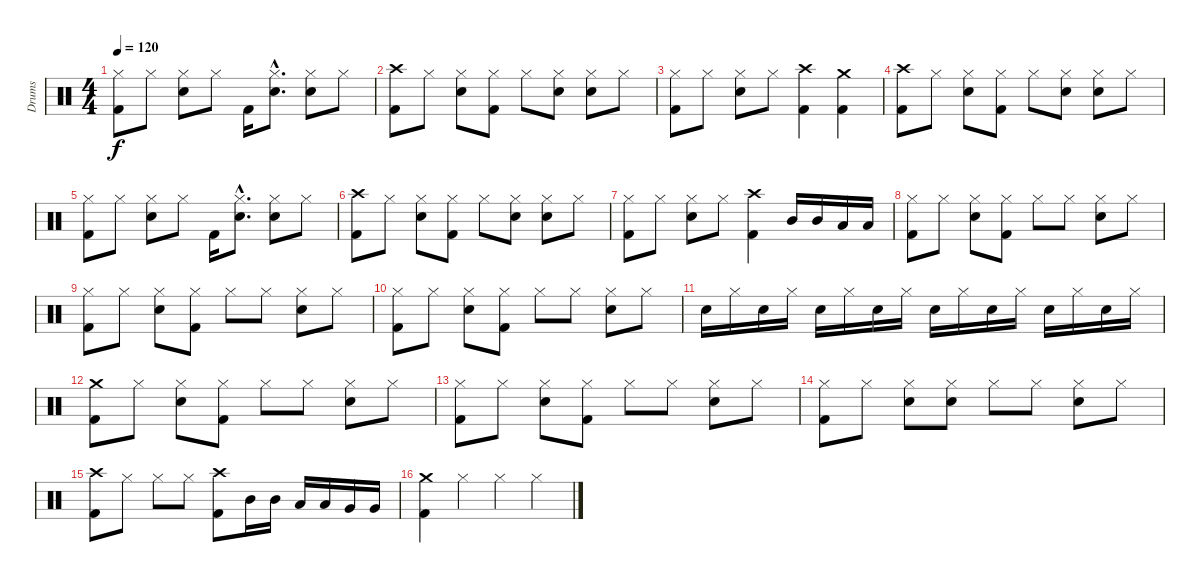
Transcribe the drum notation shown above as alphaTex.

\track ("Drums" "Drums") {instrument percussion}
\staff {score}
\articulation defaults
\ts (4 4)
\tempo 120
\clef neutral
\ks c
("Hi-Hat (closed)" "Kick (hit) 2").8{dy f} "Hi-Hat (closed)".8 ("Electric Snare (hit)" "Hi-Hat (closed)").8 "Hi-Hat (closed)".8 "Kick (hit) 2".16 ("Electric Snare (hit)"{hac} "Hi-Hat (closed)"{hac}).8{d} ("Electric Snare (hit)" "Hi-Hat (closed)").8 "Hi-Hat (closed)".8 |
("Crash high (hit)" "Kick (hit) 2").8 "Hi-Hat (closed)".8 ("Electric Snare (hit)" "Hi-Hat (closed)").8 ("Hi-Hat (closed)" "Kick (hit) 2").8 "Hi-Hat (closed)".8 ("Electric Snare (hit)" "Hi-Hat (closed)").8 ("Electric Snare (hit)" "Hi-Hat (closed)").8 "Hi-Hat (closed)".8 |
("Hi-Hat (closed)" "Kick (hit) 2").8 "Hi-Hat (closed)".8 ("Electric Snare (hit)" "Hi-Hat (closed)").8 "Hi-Hat (closed)".8 ("Crash high (hit)" "Kick (hit) 2").4 ("Crash medium (hit)" "Kick (hit) 2").4 |
("Crash high (hit)" "Kick (hit) 2").8 "Hi-Hat (closed)".8 ("Electric Snare (hit)" "Hi-Hat (closed)").8 ("Hi-Hat (closed)" "Kick (hit) 2").8 "Hi-Hat (closed)".8 ("Electric Snare (hit)" "Hi-Hat (closed)").8 ("Electric Snare (hit)" "Hi-Hat (closed)").8 "Hi-Hat (closed)".8 |
("Hi-Hat (closed)" "Kick (hit) 2").8 "Hi-Hat (closed)".8 ("Electric Snare (hit)" "Hi-Hat (closed)").8 "Hi-Hat (closed)".8 "Kick (hit) 2".16 ("Electric Snare (hit)"{hac} "Hi-Hat (closed)"{hac}).8{d} ("Electric Snare (hit)" "Hi-Hat (closed)").8 "Hi-Hat (closed)".8 |
("Crash high (hit)" "Kick (hit) 2").8 "Hi-Hat (closed)".8 ("Electric Snare (hit)" "Hi-Hat (closed)").8 ("Hi-Hat (closed)" "Kick (hit) 2").8 "Hi-Hat (closed)".8 ("Electric Snare (hit)" "Hi-Hat (closed)").8 ("Electric Snare (hit)" "Hi-Hat (closed)").8 "Hi-Hat (closed)".8 |
("Hi-Hat (closed)" "Kick (hit) 2").8 "Hi-Hat (closed)".8 ("Electric Snare (hit)" "Hi-Hat (closed)").8 "Hi-Hat (closed)".8 ("Crash high (hit)" "Kick (hit) 2").4 "Mid Tom (hit)".16 "Mid Tom (hit)".16 "Low Tom (hit)".16 "Low Tom (hit)".16 |
("Hi-Hat (closed)" "Kick (hit) 2").8 "Hi-Hat (closed)".8 ("Electric Snare (hit)" "Hi-Hat (closed)").8 ("Hi-Hat (closed)" "Kick (hit) 2").8 "Hi-Hat (closed)".8 "Hi-Hat (closed)".8 ("Electric Snare (hit)" "Hi-Hat (closed)").8 "Hi-Hat (closed)".8 |
("Hi-Hat (closed)" "Kick (hit) 2").8 "Hi-Hat (closed)".8 ("Electric Snare (hit)" "Hi-Hat (closed)").8 ("Hi-Hat (closed)" "Kick (hit) 2").8 "Hi-Hat (closed)".8 "Hi-Hat (closed)".8 ("Electric Snare (hit)" "Hi-Hat (closed)").8 "Hi-Hat (closed)".8 |
("Hi-Hat (closed)" "Kick (hit) 2").8 "Hi-Hat (closed)".8 ("Electric Snare (hit)" "Hi-Hat (closed)").8 ("Hi-Hat (closed)" "Kick (hit) 2").8 "Hi-Hat (closed)".8 "Hi-Hat (closed)".8 ("Electric Snare (hit)" "Hi-Hat (closed)").8 "Hi-Hat (closed)".8 |
"Electric Snare (hit)".16 "Hi-Hat (closed)".16 "Electric Snare (hit)".16 "Hi-Hat (closed)".16 "Electric Snare (hit)".16 "Hi-Hat (closed)".16 "Electric Snare (hit)".16 "Hi-Hat (closed)".16 "Electric Snare (hit)".16 "Hi-Hat (closed)".16 "Electric Snare (hit)".16 "Hi-Hat (closed)".16 "Electric Snare (hit)".16 "Hi-Hat (closed)".16 "Electric Snare (hit)".16 "Hi-Hat (closed)".16 |
("Crash medium (hit)" "Kick (hit) 2").8 "Hi-Hat (closed)".8 ("Electric Snare (hit)" "Hi-Hat (closed)").8 ("Hi-Hat (closed)" "Kick (hit) 2").8 "Hi-Hat (closed)".8 "Hi-Hat (closed)".8 ("Electric Snare (hit)" "Hi-Hat (closed)").8 "Hi-Hat (closed)".8 |
("Hi-Hat (closed)" "Kick (hit) 2").8 "Hi-Hat (closed)".8 ("Electric Snare (hit)" "Hi-Hat (closed)").8 ("Hi-Hat (closed)" "Kick (hit) 2").8 "Hi-Hat (closed)".8 "Hi-Hat (closed)".8 ("Electric Snare (hit)" "Hi-Hat (closed)").8 "Hi-Hat (closed)".8 |
("Hi-Hat (closed)" "Kick (hit) 2").8 "Hi-Hat (closed)".8 ("Electric Snare (hit)" "Hi-Hat (closed)").8 ("Electric Snare (hit)" "Hi-Hat (closed)").8 "Hi-Hat (closed)".8 "Hi-Hat (closed)".8 ("Electric Snare (hit)" "Hi-Hat (closed)").8 "Hi-Hat (closed)".8 |
("Crash high (hit)" "Kick (hit) 2").8 "Hi-Hat (closed)".8 "Hi-Hat (closed)".8 "Hi-Hat (closed)".8 ("Crash high (hit)" "Kick (hit) 2").8 "Mid Tom (hit)".16 "Mid Tom (hit)".16 "Low Tom (hit)".16 "Low Tom (hit)".16 "Very Low Tom (hit)".16 "Very Low Tom (hit)".16 |
("Crash medium (hit)" "Kick (hit) 2").4 "Hi-Hat (closed)".4 "Hi-Hat (closed)".4 "Hi-Hat (closed)".4
